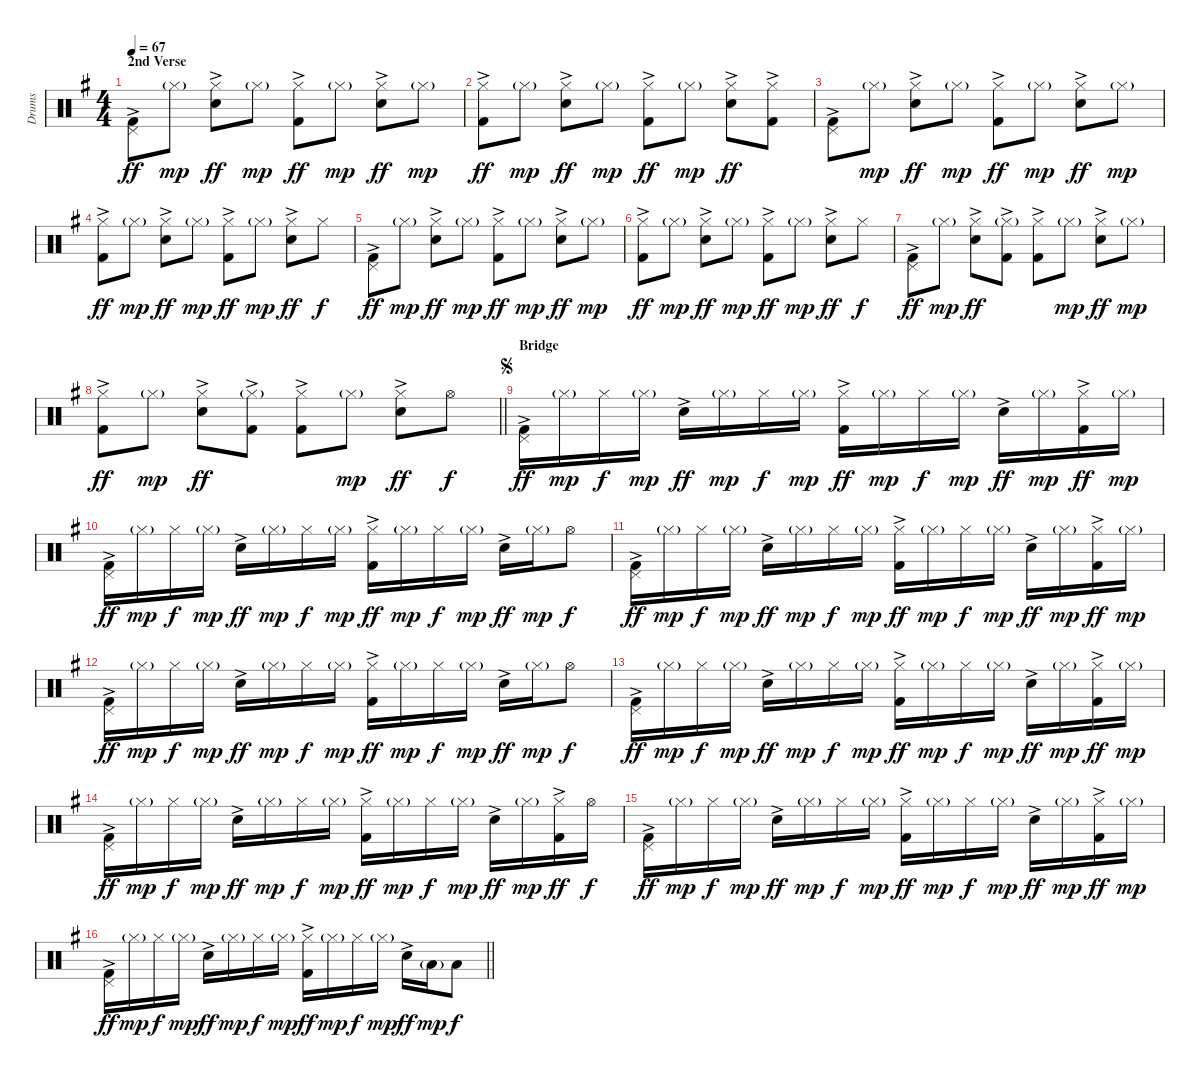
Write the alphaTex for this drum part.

\track ("Drums" "Drums") {instrument percussion}
\staff {score}
\articulation defaults
\ts (4 4)
\section ("" "2nd Verse")
\tempo 67
\clef neutral
\ks g
("Pedal Hi-Hat (hit)" "Kick (hit) 2"{ac}).8{dy ff} "Hi-Hat (closed)"{g}.8{dy mp} ("Hi-Hat (closed)" "Snare (hit) 2"{ac}).8{dy ff} "Hi-Hat (closed)"{g}.8{dy mp} ("Hi-Hat (closed)" "Kick (hit) 2"{ac}).8{dy ff} "Hi-Hat (closed)"{g}.8{dy mp} ("Hi-Hat (closed)" "Snare (hit) 2"{ac}).8{dy ff} "Hi-Hat (closed)"{g}.8{dy mp} |
("Hi-Hat (closed)" "Kick (hit) 2"{ac}).8{dy ff} "Hi-Hat (closed)"{g}.8{dy mp} ("Hi-Hat (closed)" "Snare (hit) 2"{ac}).8{dy ff} "Hi-Hat (closed)"{g}.8{dy mp} ("Hi-Hat (closed)" "Kick (hit) 2"{ac}).8{dy ff} "Hi-Hat (closed)"{g}.8{dy mp} ("Hi-Hat (closed)" "Snare (hit) 2"{ac}).8{dy ff} ("Hi-Hat (closed)" "Kick (hit) 2"{ac}).8 |
("Pedal Hi-Hat (hit)" "Kick (hit) 2"{ac}).8 "Hi-Hat (closed)"{g}.8{dy mp} ("Hi-Hat (closed)" "Snare (hit) 2"{ac}).8{dy ff} "Hi-Hat (closed)"{g}.8{dy mp} ("Hi-Hat (closed)" "Kick (hit) 2"{ac}).8{dy ff} "Hi-Hat (closed)"{g}.8{dy mp} ("Hi-Hat (closed)" "Snare (hit) 2"{ac}).8{dy ff} "Hi-Hat (closed)"{g}.8{dy mp} |
("Hi-Hat (closed)" "Kick (hit) 2"{ac}).8{dy ff} "Hi-Hat (closed)"{g}.8{dy mp} ("Hi-Hat (closed)" "Snare (hit) 2"{ac}).8{dy ff} "Hi-Hat (closed)"{g}.8{dy mp} ("Hi-Hat (closed)" "Kick (hit) 2"{ac}).8{dy ff} "Hi-Hat (closed)"{g}.8{dy mp} ("Hi-Hat (closed)" "Snare (hit) 2"{ac}).8{dy ff} "Hi-Hat (closed)".8{dy f} |
("Pedal Hi-Hat (hit)" "Kick (hit) 2"{ac}).8{dy ff} "Hi-Hat (closed)"{g}.8{dy mp} ("Hi-Hat (closed)" "Snare (hit) 2"{ac}).8{dy ff} "Hi-Hat (closed)"{g}.8{dy mp} ("Hi-Hat (closed)" "Kick (hit) 2"{ac}).8{dy ff} "Hi-Hat (closed)"{g}.8{dy mp} ("Hi-Hat (closed)" "Snare (hit) 2"{ac}).8{dy ff} "Hi-Hat (closed)"{g}.8{dy mp} |
("Hi-Hat (closed)" "Kick (hit) 2"{ac}).8{dy ff} "Hi-Hat (closed)"{g}.8{dy mp} ("Hi-Hat (closed)" "Snare (hit) 2"{ac}).8{dy ff} "Hi-Hat (closed)"{g}.8{dy mp} ("Hi-Hat (closed)" "Kick (hit) 2"{ac}).8{dy ff} "Hi-Hat (closed)"{g}.8{dy mp} ("Hi-Hat (closed)" "Snare (hit) 2"{ac}).8{dy ff} "Hi-Hat (closed)".8{dy f} |
("Pedal Hi-Hat (hit)" "Kick (hit) 2"{ac}).8{dy ff} "Hi-Hat (closed)"{g}.8{dy mp} ("Hi-Hat (closed)" "Snare (hit) 2"{ac}).8{dy ff} ("Hi-Hat (closed)"{g} "Kick (hit) 2"{ac}).8 ("Hi-Hat (closed)" "Kick (hit) 2"{ac}).8 "Hi-Hat (closed)"{g}.8{dy mp} ("Hi-Hat (closed)" "Snare (hit) 2"{ac}).8{dy ff} "Hi-Hat (closed)"{g}.8{dy mp} |
\barLineRight lightlight
("Hi-Hat (closed)" "Kick (hit) 2"{ac}).8{dy ff} "Hi-Hat (closed)"{g}.8{dy mp} ("Hi-Hat (closed)" "Snare (hit) 2"{ac}).8{dy ff} ("Hi-Hat (closed)"{g} "Kick (hit) 2"{ac}).8 ("Hi-Hat (closed)" "Kick (hit) 2"{ac}).8 "Hi-Hat (closed)"{g}.8{dy mp} ("Hi-Hat (closed)" "Snare (hit) 2"{ac}).8{dy ff} "Hi-Hat (open)".8{dy f} |
\section ("" "Bridge")
\jump segno
("Pedal Hi-Hat (hit)" "Kick (hit) 2"{ac}).16{dy ff} "Hi-Hat (closed)"{g}.16{dy mp} "Hi-Hat (closed)".16{dy f} "Hi-Hat (closed)"{g}.16{dy mp} "Snare (hit) 2"{ac}.16{dy ff} "Hi-Hat (closed)"{g}.16{dy mp} "Hi-Hat (closed)".16{dy f} "Hi-Hat (closed)"{g}.16{dy mp} ("Hi-Hat (closed)" "Kick (hit) 2"{ac}).16{dy ff} "Hi-Hat (closed)"{g}.16{dy mp} "Hi-Hat (closed)".16{dy f} "Hi-Hat (closed)"{g}.16{dy mp} "Snare (hit) 2"{ac}.16{dy ff} "Hi-Hat (closed)"{g}.16{dy mp} ("Hi-Hat (closed)" "Kick (hit) 2"{ac}).16{dy ff} "Hi-Hat (closed)"{g}.16{dy mp} |
("Pedal Hi-Hat (hit)" "Kick (hit) 2"{ac}).16{dy ff} "Hi-Hat (closed)"{g}.16{dy mp} "Hi-Hat (closed)".16{dy f} "Hi-Hat (closed)"{g}.16{dy mp} "Snare (hit) 2"{ac}.16{dy ff} "Hi-Hat (closed)"{g}.16{dy mp} "Hi-Hat (closed)".16{dy f} "Hi-Hat (closed)"{g}.16{dy mp} ("Hi-Hat (closed)" "Kick (hit) 2"{ac}).16{dy ff} "Hi-Hat (closed)"{g}.16{dy mp} "Hi-Hat (closed)".16{dy f} "Hi-Hat (closed)"{g}.16{dy mp} "Snare (hit) 2"{ac}.16{dy ff} "Hi-Hat (closed)"{g}.16{dy mp} "Hi-Hat (open)".8{dy f} |
("Pedal Hi-Hat (hit)" "Kick (hit) 2"{ac}).16{dy ff} "Hi-Hat (closed)"{g}.16{dy mp} "Hi-Hat (closed)".16{dy f} "Hi-Hat (closed)"{g}.16{dy mp} "Snare (hit) 2"{ac}.16{dy ff} "Hi-Hat (closed)"{g}.16{dy mp} "Hi-Hat (closed)".16{dy f} "Hi-Hat (closed)"{g}.16{dy mp} ("Hi-Hat (closed)" "Kick (hit) 2"{ac}).16{dy ff} "Hi-Hat (closed)"{g}.16{dy mp} "Hi-Hat (closed)".16{dy f} "Hi-Hat (closed)"{g}.16{dy mp} "Snare (hit) 2"{ac}.16{dy ff} "Hi-Hat (closed)"{g}.16{dy mp} ("Hi-Hat (closed)" "Kick (hit) 2"{ac}).16{dy ff} "Hi-Hat (closed)"{g}.16{dy mp} |
("Pedal Hi-Hat (hit)" "Kick (hit) 2"{ac}).16{dy ff} "Hi-Hat (closed)"{g}.16{dy mp} "Hi-Hat (closed)".16{dy f} "Hi-Hat (closed)"{g}.16{dy mp} "Snare (hit) 2"{ac}.16{dy ff} "Hi-Hat (closed)"{g}.16{dy mp} "Hi-Hat (closed)".16{dy f} "Hi-Hat (closed)"{g}.16{dy mp} ("Hi-Hat (closed)" "Kick (hit) 2"{ac}).16{dy ff} "Hi-Hat (closed)"{g}.16{dy mp} "Hi-Hat (closed)".16{dy f} "Hi-Hat (closed)"{g}.16{dy mp} "Snare (hit) 2"{ac}.16{dy ff} "Hi-Hat (closed)"{g}.16{dy mp} "Hi-Hat (open)".8{dy f} |
("Pedal Hi-Hat (hit)" "Kick (hit) 2"{ac}).16{dy ff} "Hi-Hat (closed)"{g}.16{dy mp} "Hi-Hat (closed)".16{dy f} "Hi-Hat (closed)"{g}.16{dy mp} "Snare (hit) 2"{ac}.16{dy ff} "Hi-Hat (closed)"{g}.16{dy mp} "Hi-Hat (closed)".16{dy f} "Hi-Hat (closed)"{g}.16{dy mp} ("Hi-Hat (closed)" "Kick (hit) 2"{ac}).16{dy ff} "Hi-Hat (closed)"{g}.16{dy mp} "Hi-Hat (closed)".16{dy f} "Hi-Hat (closed)"{g}.16{dy mp} "Snare (hit) 2"{ac}.16{dy ff} "Hi-Hat (closed)"{g}.16{dy mp} ("Hi-Hat (closed)" "Kick (hit) 2"{ac}).16{dy ff} "Hi-Hat (closed)"{g}.16{dy mp} |
("Pedal Hi-Hat (hit)" "Kick (hit) 2"{ac}).16{dy ff} "Hi-Hat (closed)"{g}.16{dy mp} "Hi-Hat (closed)".16{dy f} "Hi-Hat (closed)"{g}.16{dy mp} "Snare (hit) 2"{ac}.16{dy ff} "Hi-Hat (closed)"{g}.16{dy mp} "Hi-Hat (closed)".16{dy f} "Hi-Hat (closed)"{g}.16{dy mp} ("Hi-Hat (closed)" "Kick (hit) 2"{ac}).16{dy ff} "Hi-Hat (closed)"{g}.16{dy mp} "Hi-Hat (closed)".16{dy f} "Hi-Hat (closed)"{g}.16{dy mp} "Snare (hit) 2"{ac}.16{dy ff} "Hi-Hat (closed)"{g}.16{dy mp} ("Hi-Hat (closed)" "Kick (hit) 2"{ac}).16{dy ff} "Hi-Hat (open)".16{dy f} |
("Pedal Hi-Hat (hit)" "Kick (hit) 2"{ac}).16{dy ff} "Hi-Hat (closed)"{g}.16{dy mp} "Hi-Hat (closed)".16{dy f} "Hi-Hat (closed)"{g}.16{dy mp} "Snare (hit) 2"{ac}.16{dy ff} "Hi-Hat (closed)"{g}.16{dy mp} "Hi-Hat (closed)".16{dy f} "Hi-Hat (closed)"{g}.16{dy mp} ("Hi-Hat (closed)" "Kick (hit) 2"{ac}).16{dy ff} "Hi-Hat (closed)"{g}.16{dy mp} "Hi-Hat (closed)".16{dy f} "Hi-Hat (closed)"{g}.16{dy mp} "Snare (hit) 2"{ac}.16{dy ff} "Hi-Hat (closed)"{g}.16{dy mp} ("Hi-Hat (closed)" "Kick (hit) 2"{ac}).16{dy ff} "Hi-Hat (closed)"{g}.16{dy mp} |
\barLineRight lightlight
("Pedal Hi-Hat (hit)" "Kick (hit) 2"{ac}).16{dy ff} "Hi-Hat (closed)"{g}.16{dy mp} "Hi-Hat (closed)".16{dy f} "Hi-Hat (closed)"{g}.16{dy mp} "Snare (hit) 2"{ac}.16{dy ff} "Hi-Hat (closed)"{g}.16{dy mp} "Hi-Hat (closed)".16{dy f} "Hi-Hat (closed)"{g}.16{dy mp} ("Hi-Hat (closed)" "Kick (hit) 2"{ac}).16{dy ff} "Hi-Hat (closed)"{g}.16{dy mp} "Hi-Hat (closed)".16{dy f} "Hi-Hat (closed)"{g}.16{dy mp} "Snare (hit) 2"{ac}.16{dy ff} "Low Tom (hit)"{g}.16{dy mp} "Low Floor Tom (hit)".8{dy f}
